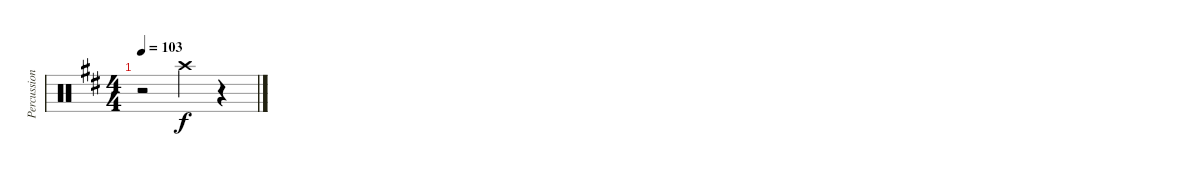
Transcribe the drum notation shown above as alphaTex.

\track ("Percussion" "Percussion") {instrument percussion}
\staff {score}
\articulation defaults
\ts (4 4)
\tempo 103
\clef neutral
\ks d
r.2{dy fff} "Crash high (hit)".4{dy f} r.4
